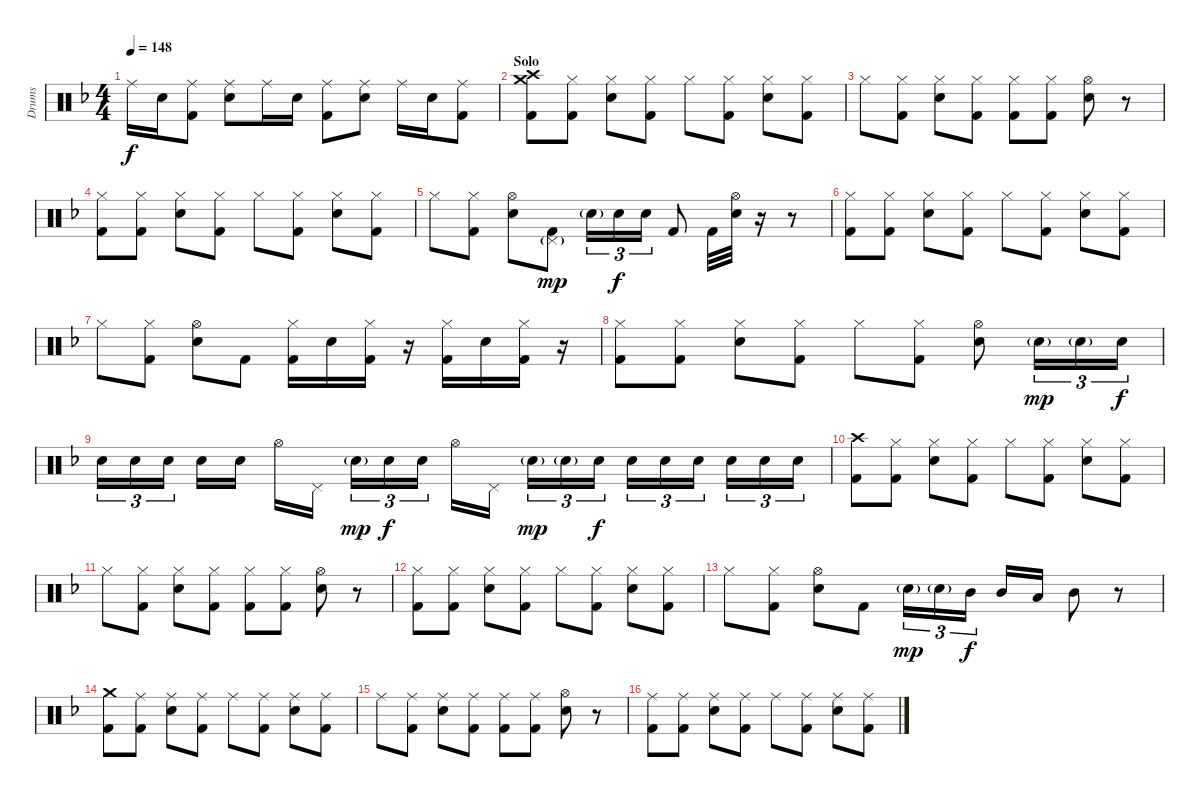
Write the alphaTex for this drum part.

\track ("Drums" "Drums") {instrument percussion}
\staff {score}
\articulation defaults
\ts (4 4)
\tempo 148
\clef neutral
\ks dminor "Ride (middle)".16{dy f} "Snare (hit) 2".16
("Ride (middle)" "Kick (hit) 2").8 ("Ride (middle)" "Snare (hit) 2").8 "Ride (middle)".16 "Snare (hit) 2".16 ("Ride (middle)" "Kick (hit) 2").8 ("Ride (middle)" "Snare (hit) 2").8 "Ride (middle)".16 "Snare (hit) 2".16 ("Ride (middle)" "Kick (hit) 2").8 |
\section ("" "Solo")
("Crash high (hit)" "Crash medium (hit)" "Kick (hit) 2").8 ("Hi-Hat (closed)" "Kick (hit) 2").8 ("Hi-Hat (closed)" "Snare (hit) 2").8 ("Hi-Hat (closed)" "Kick (hit) 2").8 "Hi-Hat (closed)".8 ("Hi-Hat (closed)" "Kick (hit) 2").8 ("Hi-Hat (closed)" "Snare (hit) 2").8 ("Hi-Hat (closed)" "Kick (hit) 2").8 |
"Hi-Hat (closed)".8 ("Hi-Hat (closed)" "Kick (hit) 2").8 ("Hi-Hat (closed)" "Snare (hit) 2").8 ("Hi-Hat (closed)" "Kick (hit) 2").8 ("Hi-Hat (closed)" "Kick (hit) 2").8 ("Hi-Hat (closed)" "Kick (hit) 2").8 ("Hi-Hat (open)" "Snare (hit) 2").8 r.8 |
("Hi-Hat (closed)" "Kick (hit) 2").8 ("Hi-Hat (closed)" "Kick (hit) 2").8 ("Hi-Hat (closed)" "Snare (hit) 2").8 ("Hi-Hat (closed)" "Kick (hit) 2").8 "Hi-Hat (closed)".8 ("Hi-Hat (closed)" "Kick (hit) 2").8 ("Hi-Hat (closed)" "Snare (hit) 2").8 ("Hi-Hat (closed)" "Kick (hit) 2").8 |
"Hi-Hat (closed)".8 ("Hi-Hat (closed)" "Kick (hit) 2").8 ("Hi-Hat (open)" "Snare (hit) 2").8 ("Pedal Hi-Hat (hit)"{g} "Kick (hit) 2").8{dy mp} "Snare (hit) 2"{g}.16{tu (3 2)} "Snare (hit) 2".16{tu (3 2) dy f} "Snare (hit) 2".16{tu (3 2)} "Kick (hit) 2".8 "Kick (hit) 2".32 ("Hi-Hat (open)" "Snare (hit) 2").32 r.16 r.8 |
("Hi-Hat (closed)" "Kick (hit) 2").8 ("Hi-Hat (closed)" "Kick (hit) 2").8 ("Hi-Hat (closed)" "Snare (hit) 2").8 ("Hi-Hat (closed)" "Kick (hit) 2").8 "Hi-Hat (closed)".8 ("Hi-Hat (closed)" "Kick (hit) 2").8 ("Hi-Hat (closed)" "Snare (hit) 2").8 ("Hi-Hat (closed)" "Kick (hit) 2").8 |
"Hi-Hat (closed)".8 ("Hi-Hat (closed)" "Kick (hit) 2").8 ("Hi-Hat (open)" "Snare (hit) 2").8 "Kick (hit) 2".8 ("Hi-Hat (closed)" "Kick (hit) 2").16 "Snare (hit) 2".16 ("Hi-Hat (closed)" "Kick (hit) 2").16 r.16 ("Hi-Hat (closed)" "Kick (hit) 2").16 "Snare (hit) 2".16 ("Hi-Hat (closed)" "Kick (hit) 2").16 r.16 |
("Hi-Hat (closed)" "Kick (hit) 2").8 ("Hi-Hat (closed)" "Kick (hit) 2").8 ("Hi-Hat (closed)" "Snare (hit) 2").8 ("Hi-Hat (closed)" "Kick (hit) 2").8 "Hi-Hat (closed)".8 ("Hi-Hat (closed)" "Kick (hit) 2").8 ("Hi-Hat (open)" "Snare (hit) 2").8 "Snare (hit) 2"{g}.16{tu (3 2) dy mp} "Snare (hit) 2"{g}.16{tu (3 2)} "Snare (hit) 2".16{tu (3 2) dy f} |
"Snare (hit) 2".16{tu (3 2)} "Snare (hit) 2".16{tu (3 2)} "Snare (hit) 2".16{tu (3 2)} "Snare (hit) 2".16 "Snare (hit) 2".16 "Hi-Hat (open)".16 "Pedal Hi-Hat (hit)".16 "Snare (hit) 2"{g}.16{tu (3 2) dy mp} "Snare (hit) 2".16{tu (3 2) dy f} "Snare (hit) 2".16{tu (3 2)} "Hi-Hat (open)".16 "Pedal Hi-Hat (hit)".16 "Snare (hit) 2"{g}.16{tu (3 2) dy mp} "Snare (hit) 2"{g}.16{tu (3 2)} "Snare (hit) 2".16{tu (3 2) dy f} "Snare (hit) 2".16{tu (3 2)} "Snare (hit) 2".16{tu (3 2)} "Snare (hit) 2".16{tu (3 2)} "Snare (hit) 2".16{tu (3 2)} "Snare (hit) 2".16{tu (3 2)} "Snare (hit) 2".16{tu (3 2)} |
("Crash high (hit)" "Kick (hit) 2").8 ("Hi-Hat (closed)" "Kick (hit) 2").8 ("Hi-Hat (closed)" "Snare (hit) 2").8 ("Hi-Hat (closed)" "Kick (hit) 2").8 "Hi-Hat (closed)".8 ("Hi-Hat (closed)" "Kick (hit) 2").8 ("Hi-Hat (closed)" "Snare (hit) 2").8 ("Hi-Hat (closed)" "Kick (hit) 2").8 |
"Hi-Hat (closed)".8 ("Hi-Hat (closed)" "Kick (hit) 2").8 ("Hi-Hat (closed)" "Snare (hit) 2").8 ("Hi-Hat (closed)" "Kick (hit) 2").8 ("Hi-Hat (closed)" "Kick (hit) 2").8 ("Hi-Hat (closed)" "Kick (hit) 2").8 ("Hi-Hat (open)" "Snare (hit) 2").8 r.8 |
("Hi-Hat (closed)" "Kick (hit) 2").8 ("Hi-Hat (closed)" "Kick (hit) 2").8 ("Hi-Hat (closed)" "Snare (hit) 2").8 ("Hi-Hat (closed)" "Kick (hit) 2").8 "Hi-Hat (closed)".8 ("Hi-Hat (closed)" "Kick (hit) 2").8 ("Hi-Hat (closed)" "Snare (hit) 2").8 ("Hi-Hat (closed)" "Kick (hit) 2").8 |
"Hi-Hat (closed)".8 ("Hi-Hat (closed)" "Kick (hit) 2").8 ("Hi-Hat (open)" "Snare (hit) 2").8 "Kick (hit) 2".8 "Snare (hit) 2"{g}.16{tu (3 2) dy mp} "Snare (hit) 2"{g}.16{tu (3 2)} "Mid Tom (hit)".16{tu (3 2) dy f} "Mid Tom (hit)".16 "Low Tom (hit)".16 "Mid Tom (hit)".8 r.8 |
("Crash medium (hit)" "Kick (hit) 2").8 ("Ride (middle)" "Kick (hit) 2").8 ("Ride (middle)" "Snare (hit) 2").8 ("Ride (middle)" "Kick (hit) 2").8 "Ride (middle)".8 ("Ride (middle)" "Kick (hit) 2").8 ("Ride (middle)" "Snare (hit) 2").8 ("Ride (middle)" "Kick (hit) 2").8 |
"Ride (middle)".8 ("Ride (middle)" "Kick (hit) 2").8 ("Ride (middle)" "Snare (hit) 2").8 ("Ride (middle)" "Kick (hit) 2").8 ("Ride (middle)" "Kick (hit) 2").8 ("Ride (middle)" "Kick (hit) 2").8 ("Hi-Hat (open)" "Snare (hit) 2").8 r.8 |
("Ride (middle)" "Kick (hit) 2").8 ("Ride (middle)" "Kick (hit) 2").8 ("Ride (middle)" "Snare (hit) 2").8 ("Ride (middle)" "Kick (hit) 2").8 "Ride (middle)".8 ("Ride (middle)" "Kick (hit) 2").8 ("Ride (middle)" "Snare (hit) 2").8 ("Ride (middle)" "Kick (hit) 2").8
